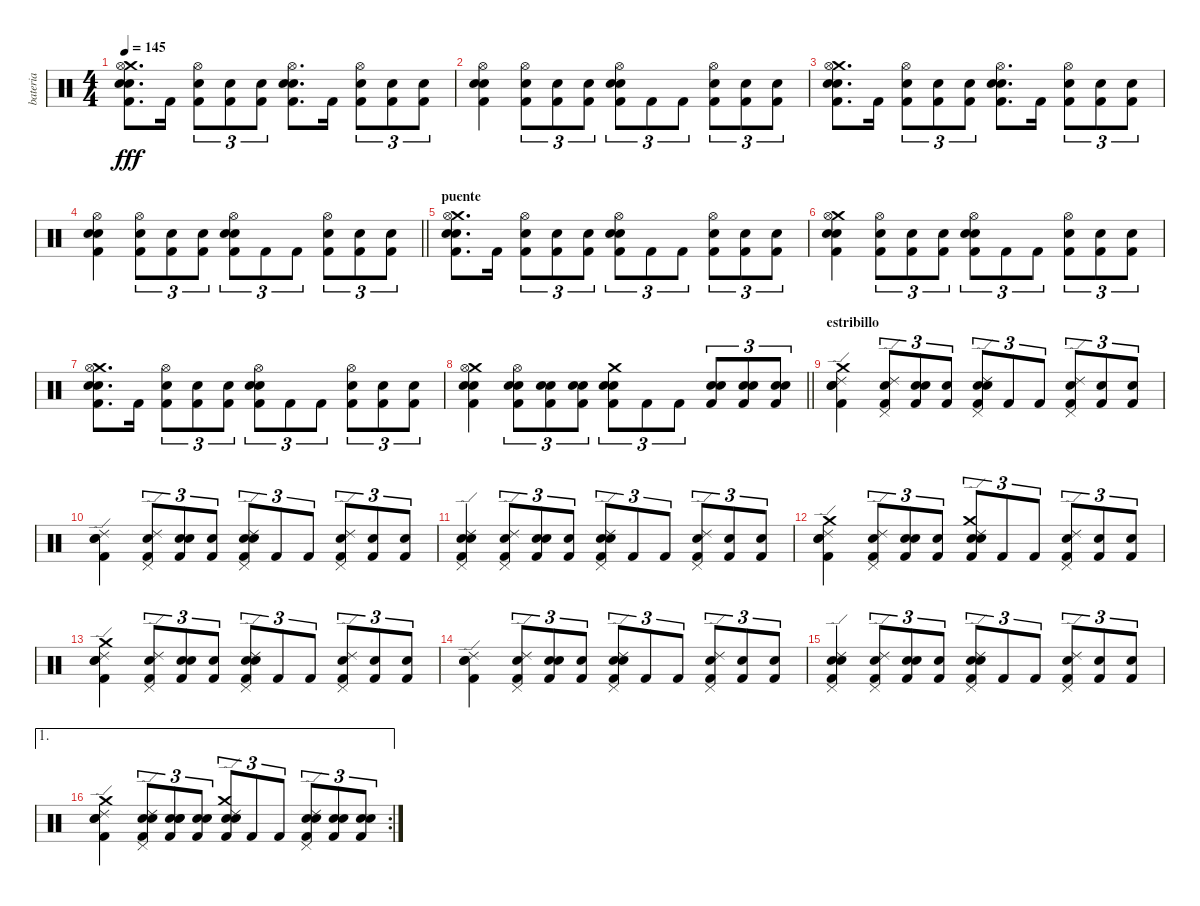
\track ("bateria" "bateria") {instrument percussion}
\staff {score}
\articulation defaults
\ts (4 4)
\tempo 145
\clef neutral
\ks c
("Snare (hit)" "Kick (hit) 2" "Snare (hit) 2" "Crash medium (hit)" "Hi-Hat (open)").8{d dy fff} "Kick (hit) 2".16 ("Snare (hit)" "Kick (hit) 2" "Hi-Hat (open)").8{tu (3 2)} ("Snare (hit)" "Kick (hit) 2").8{tu (3 2)} ("Snare (hit)" "Kick (hit) 2").8{tu (3 2)} ("Snare (hit)" "Kick (hit) 2" "Snare (hit) 2" "Hi-Hat (open)").8{d} "Kick (hit) 2".16 ("Snare (hit)" "Kick (hit) 2" "Hi-Hat (open)").8{tu (3 2)} ("Snare (hit)" "Kick (hit) 2").8{tu (3 2)} ("Snare (hit)" "Kick (hit) 2").8{tu (3 2)} |
("Snare (hit)" "Kick (hit) 2" "Snare (hit) 2" "Hi-Hat (open)").4 ("Snare (hit)" "Kick (hit) 2" "Hi-Hat (open)").8{tu (3 2)} ("Snare (hit)" "Kick (hit) 2").8{tu (3 2)} ("Snare (hit)" "Kick (hit) 2").8{tu (3 2)} ("Snare (hit)" "Kick (hit) 2" "Snare (hit) 2" "Hi-Hat (open)").8{tu (3 2)} "Kick (hit) 2".8{tu (3 2)} "Kick (hit) 2".8{tu (3 2)} ("Snare (hit)" "Kick (hit) 2" "Hi-Hat (open)").8{tu (3 2)} ("Snare (hit)" "Kick (hit) 2").8{tu (3 2)} ("Snare (hit)" "Kick (hit) 2").8{tu (3 2)} |
("Snare (hit)" "Kick (hit) 2" "Snare (hit) 2" "Crash medium (hit)" "Hi-Hat (open)").8{d} "Kick (hit) 2".16 ("Snare (hit)" "Kick (hit) 2" "Hi-Hat (open)").8{tu (3 2)} ("Snare (hit)" "Kick (hit) 2").8{tu (3 2)} ("Snare (hit)" "Kick (hit) 2").8{tu (3 2)} ("Snare (hit)" "Kick (hit) 2" "Snare (hit) 2" "Hi-Hat (open)").8{d} "Kick (hit) 2".16 ("Snare (hit)" "Kick (hit) 2" "Hi-Hat (open)").8{tu (3 2)} ("Snare (hit)" "Kick (hit) 2").8{tu (3 2)} ("Snare (hit)" "Kick (hit) 2").8{tu (3 2)} |
\barLineRight lightlight
("Snare (hit)" "Kick (hit) 2" "Snare (hit) 2" "Hi-Hat (open)").4 ("Snare (hit)" "Kick (hit) 2" "Hi-Hat (open)").8{tu (3 2)} ("Snare (hit)" "Kick (hit) 2").8{tu (3 2)} ("Snare (hit)" "Kick (hit) 2").8{tu (3 2)} ("Snare (hit)" "Kick (hit) 2" "Snare (hit) 2" "Hi-Hat (open)").8{tu (3 2)} "Kick (hit) 2".8{tu (3 2)} "Kick (hit) 2".8{tu (3 2)} ("Snare (hit)" "Kick (hit) 2" "Hi-Hat (open)").8{tu (3 2)} ("Snare (hit)" "Kick (hit) 2").8{tu (3 2)} ("Snare (hit)" "Kick (hit) 2").8{tu (3 2)} |
\section ("" "puente")
("Snare (hit)" "Kick (hit) 2" "Snare (hit) 2" "Crash medium (hit)" "Hi-Hat (open)").8{d} "Kick (hit) 2".16 ("Snare (hit)" "Kick (hit) 2" "Hi-Hat (open)").8{tu (3 2)} ("Snare (hit)" "Kick (hit) 2").8{tu (3 2)} ("Snare (hit)" "Kick (hit) 2").8{tu (3 2)} ("Snare (hit)" "Kick (hit) 2" "Snare (hit) 2" "Hi-Hat (open)").8{tu (3 2)} "Kick (hit) 2".8{tu (3 2)} "Kick (hit) 2".8{tu (3 2)} ("Snare (hit)" "Kick (hit) 2" "Hi-Hat (open)").8{tu (3 2)} ("Snare (hit)" "Kick (hit) 2").8{tu (3 2)} ("Snare (hit)" "Kick (hit) 2").8{tu (3 2)} |
("Snare (hit)" "Kick (hit) 2" "Snare (hit) 2" "Crash medium (hit)" "Hi-Hat (open)").4 ("Snare (hit)" "Kick (hit) 2" "Hi-Hat (open)").8{tu (3 2)} ("Snare (hit)" "Kick (hit) 2").8{tu (3 2)} ("Snare (hit)" "Kick (hit) 2").8{tu (3 2)} ("Snare (hit)" "Kick (hit) 2" "Snare (hit) 2" "Hi-Hat (open)").8{tu (3 2)} "Kick (hit) 2".8{tu (3 2)} "Kick (hit) 2".8{tu (3 2)} ("Snare (hit)" "Kick (hit) 2" "Hi-Hat (open)").8{tu (3 2)} ("Snare (hit)" "Kick (hit) 2").8{tu (3 2)} ("Snare (hit)" "Kick (hit) 2").8{tu (3 2)} |
("Snare (hit)" "Kick (hit) 2" "Snare (hit) 2" "Crash medium (hit)" "Hi-Hat (open)").8{d} "Kick (hit) 2".16 ("Snare (hit)" "Kick (hit) 2" "Hi-Hat (open)").8{tu (3 2)} ("Snare (hit)" "Kick (hit) 2").8{tu (3 2)} ("Snare (hit)" "Kick (hit) 2").8{tu (3 2)} ("Snare (hit)" "Kick (hit) 2" "Snare (hit) 2" "Hi-Hat (open)").8{tu (3 2)} "Kick (hit) 2".8{tu (3 2)} "Kick (hit) 2".8{tu (3 2)} ("Snare (hit)" "Kick (hit) 2" "Hi-Hat (open)").8{tu (3 2)} ("Snare (hit)" "Kick (hit) 2").8{tu (3 2)} ("Snare (hit)" "Kick (hit) 2").8{tu (3 2)} |
\barLineRight lightlight
("Snare (hit)" "Kick (hit) 2" "Snare (hit) 2" "Crash medium (hit)" "Hi-Hat (open)").4 ("Snare (hit)" "Kick (hit) 2" "Snare (hit) 2" "Hi-Hat (open)").8{tu (3 2)} ("Snare (hit)" "Kick (hit) 2" "Snare (hit) 2").8{tu (3 2)} ("Snare (hit)" "Kick (hit) 2" "Snare (hit) 2").8{tu (3 2)} ("Snare (hit)" "Kick (hit) 2" "Snare (hit) 2" "Crash medium (hit)").8{tu (3 2)} "Kick (hit) 2".8{tu (3 2)} "Kick (hit) 2".8{tu (3 2)} ("Snare (hit)" "Kick (hit) 2" "Snare (hit) 2").8{tu (3 2)} ("Snare (hit)" "Kick (hit) 2" "Snare (hit) 2").8{tu (3 2)} ("Snare (hit)" "Kick (hit) 2" "Snare (hit) 2").8{tu (3 2)} |
\section ("" "estribillo")
("Snare (hit)" "Kick (hit) 2" "Snare (hit) 2" "Crash medium (hit)" "Ride (edge) 2").4 ("Snare (hit)" "Kick (hit) 2" "Ride (edge) 2" "Pedal Hi-Hat (hit)").8{tu (3 2)} ("Snare (hit)" "Kick (hit) 2" "Snare (hit)").8{tu (3 2)} ("Snare (hit)" "Kick (hit) 2").8{tu (3 2)} ("Snare (hit)" "Kick (hit) 2" "Snare (hit) 2" "Ride (edge) 2" "Pedal Hi-Hat (hit)").8{tu (3 2)} "Kick (hit) 2".8{tu (3 2)} "Kick (hit) 2".8{tu (3 2)} ("Snare (hit)" "Kick (hit) 2" "Ride (edge) 2" "Pedal Hi-Hat (hit)").8{tu (3 2)} ("Snare (hit)" "Kick (hit) 2").8{tu (3 2)} ("Snare (hit)" "Kick (hit) 2").8{tu (3 2)} |
("Snare (hit)" "Kick (hit) 2" "Snare (hit) 2" "Ride (edge) 2").4 ("Snare (hit)" "Kick (hit) 2" "Ride (edge) 2" "Pedal Hi-Hat (hit)").8{tu (3 2)} ("Snare (hit)" "Kick (hit) 2" "Snare (hit)").8{tu (3 2)} ("Snare (hit)" "Kick (hit) 2").8{tu (3 2)} ("Snare (hit)" "Kick (hit) 2" "Snare (hit) 2" "Ride (edge) 2" "Pedal Hi-Hat (hit)").8{tu (3 2)} "Kick (hit) 2".8{tu (3 2)} "Kick (hit) 2".8{tu (3 2)} ("Snare (hit)" "Kick (hit) 2" "Ride (edge) 2" "Pedal Hi-Hat (hit)").8{tu (3 2)} ("Snare (hit)" "Kick (hit) 2").8{tu (3 2)} ("Snare (hit)" "Kick (hit) 2").8{tu (3 2)} |
("Snare (hit)" "Kick (hit) 2" "Snare (hit) 2" "Ride (edge) 2" "Pedal Hi-Hat (hit)").4 ("Snare (hit)" "Kick (hit) 2" "Ride (edge) 2" "Pedal Hi-Hat (hit)").8{tu (3 2)} ("Snare (hit)" "Kick (hit) 2" "Snare (hit)").8{tu (3 2)} ("Snare (hit)" "Kick (hit) 2").8{tu (3 2)} ("Snare (hit)" "Kick (hit) 2" "Snare (hit) 2" "Ride (edge) 2" "Pedal Hi-Hat (hit)").8{tu (3 2)} "Kick (hit) 2".8{tu (3 2)} "Kick (hit) 2".8{tu (3 2)} ("Snare (hit)" "Kick (hit) 2" "Ride (edge) 2" "Pedal Hi-Hat (hit)").8{tu (3 2)} ("Snare (hit)" "Kick (hit) 2").8{tu (3 2)} ("Snare (hit)" "Kick (hit) 2").8{tu (3 2)} |
("Snare (hit)" "Kick (hit) 2" "Snare (hit) 2" "Crash medium (hit)" "Ride (edge) 2").4 ("Snare (hit)" "Kick (hit) 2" "Ride (edge) 2" "Pedal Hi-Hat (hit)").8{tu (3 2)} ("Snare (hit)" "Kick (hit) 2" "Snare (hit)").8{tu (3 2)} ("Snare (hit)" "Kick (hit) 2").8{tu (3 2)} ("Snare (hit)" "Kick (hit) 2" "Snare (hit) 2" "Crash medium (hit)" "Ride (edge) 2").8{tu (3 2)} "Kick (hit) 2".8{tu (3 2)} "Kick (hit) 2".8{tu (3 2)} ("Snare (hit)" "Kick (hit) 2" "Ride (edge) 2" "Pedal Hi-Hat (hit)").8{tu (3 2)} ("Snare (hit)" "Kick (hit) 2").8{tu (3 2)} ("Snare (hit)" "Kick (hit) 2").8{tu (3 2)} |
("Snare (hit)" "Kick (hit) 2" "Snare (hit) 2" "Crash medium (hit)" "Ride (edge) 2").4 ("Snare (hit)" "Kick (hit) 2" "Ride (edge) 2" "Pedal Hi-Hat (hit)").8{tu (3 2)} ("Snare (hit)" "Kick (hit) 2" "Snare (hit)").8{tu (3 2)} ("Snare (hit)" "Kick (hit) 2").8{tu (3 2)} ("Snare (hit)" "Kick (hit) 2" "Snare (hit) 2" "Ride (edge) 2" "Pedal Hi-Hat (hit)").8{tu (3 2)} "Kick (hit) 2".8{tu (3 2)} "Kick (hit) 2".8{tu (3 2)} ("Snare (hit)" "Kick (hit) 2" "Ride (edge) 2" "Pedal Hi-Hat (hit)").8{tu (3 2)} ("Snare (hit)" "Kick (hit) 2").8{tu (3 2)} ("Snare (hit)" "Kick (hit) 2").8{tu (3 2)} |
("Snare (hit)" "Kick (hit) 2" "Snare (hit) 2" "Ride (edge) 2").4 ("Snare (hit)" "Kick (hit) 2" "Ride (edge) 2" "Pedal Hi-Hat (hit)").8{tu (3 2)} ("Snare (hit)" "Kick (hit) 2" "Snare (hit)").8{tu (3 2)} ("Snare (hit)" "Kick (hit) 2").8{tu (3 2)} ("Snare (hit)" "Kick (hit) 2" "Snare (hit) 2" "Ride (edge) 2" "Pedal Hi-Hat (hit)").8{tu (3 2)} "Kick (hit) 2".8{tu (3 2)} "Kick (hit) 2".8{tu (3 2)} ("Snare (hit)" "Kick (hit) 2" "Ride (edge) 2" "Pedal Hi-Hat (hit)").8{tu (3 2)} ("Snare (hit)" "Kick (hit) 2").8{tu (3 2)} ("Snare (hit)" "Kick (hit) 2").8{tu (3 2)} |
("Snare (hit)" "Kick (hit) 2" "Snare (hit) 2" "Ride (edge) 2" "Pedal Hi-Hat (hit)").4 ("Snare (hit)" "Kick (hit) 2" "Ride (edge) 2" "Pedal Hi-Hat (hit)").8{tu (3 2)} ("Snare (hit)" "Kick (hit) 2" "Snare (hit)").8{tu (3 2)} ("Snare (hit)" "Kick (hit) 2").8{tu (3 2)} ("Snare (hit)" "Kick (hit) 2" "Snare (hit) 2" "Ride (edge) 2" "Pedal Hi-Hat (hit)").8{tu (3 2)} "Kick (hit) 2".8{tu (3 2)} "Kick (hit) 2".8{tu (3 2)} ("Snare (hit)" "Kick (hit) 2" "Ride (edge) 2" "Pedal Hi-Hat (hit)").8{tu (3 2)} ("Snare (hit)" "Kick (hit) 2").8{tu (3 2)} ("Snare (hit)" "Kick (hit) 2").8{tu (3 2)} |
\ae 1
\rc 2
("Snare (hit)" "Kick (hit) 2" "Snare (hit) 2" "Crash medium (hit)" "Ride (edge) 2").4 ("Snare (hit)" "Kick (hit) 2" "Snare (hit) 2" "Ride (edge) 2" "Pedal Hi-Hat (hit)").8{tu (3 2)} ("Snare (hit)" "Kick (hit) 2" "Snare (hit) 2" "Snare (hit)").8{tu (3 2)} ("Snare (hit)" "Kick (hit) 2" "Snare (hit) 2").8{tu (3 2)} ("Snare (hit)" "Kick (hit) 2" "Snare (hit) 2" "Crash medium (hit)" "Ride (edge) 2").8{tu (3 2)} "Kick (hit) 2".8{tu (3 2)} "Kick (hit) 2".8{tu (3 2)} ("Snare (hit)" "Kick (hit) 2" "Snare (hit) 2" "Ride (edge) 2" "Pedal Hi-Hat (hit)").8{tu (3 2)} ("Snare (hit)" "Kick (hit) 2" "Snare (hit) 2").8{tu (3 2)} ("Snare (hit)" "Kick (hit) 2" "Snare (hit) 2").8{tu (3 2)}
